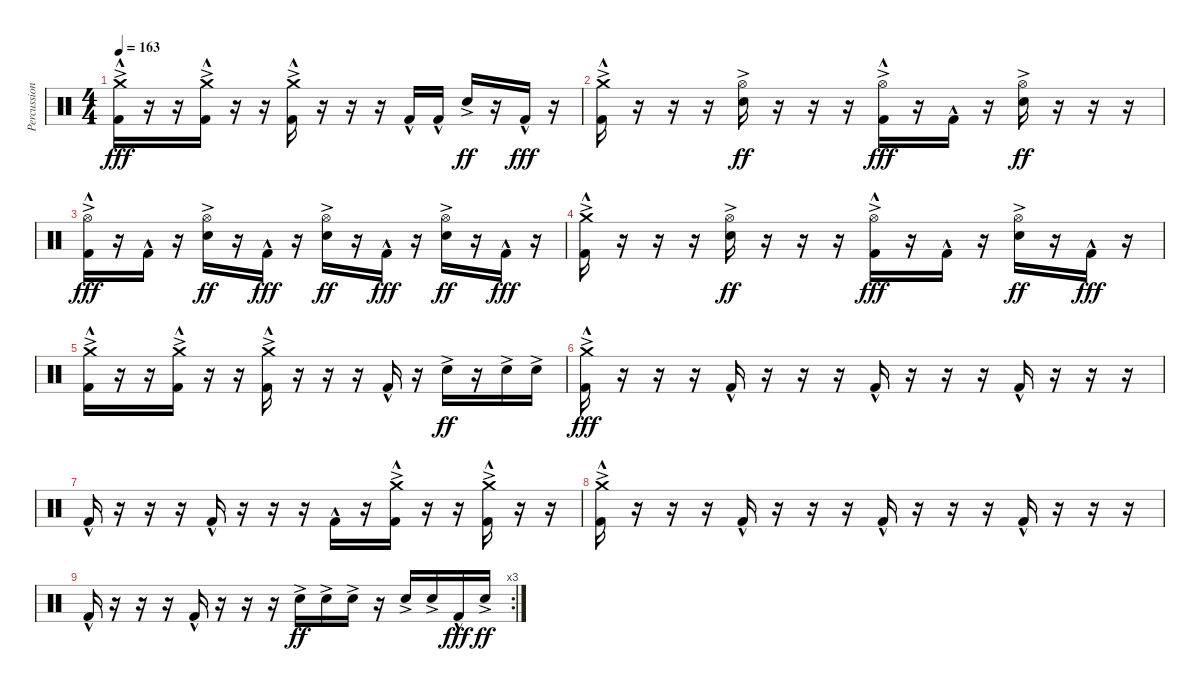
\track ("Percussion" "Percussion") {instrument percussion}
\staff {score}
\articulation defaults
\ts (4 4)
\tempo 163
\clef neutral
\ks c
("Crash medium (hit)"{ac} "Kick (hit) 2"{hac}).16{dy fff} r.16 r.16 ("Crash medium (hit)"{ac} "Kick (hit) 2"{hac}).16 r.16 r.16 ("Crash medium (hit)"{ac} "Kick (hit) 2"{hac}).16 r.16 r.16 r.16 "Kick (hit) 2"{hac}.16 "Kick (hit) 2"{hac}.16 "Snare (hit) 2"{ac}.16{dy ff} r.16 "Kick (hit) 2"{hac}.16{dy fff} r.16 |
("Crash medium (hit)"{ac} "Kick (hit) 2"{hac}).16 r.16 r.16 r.16 ("Hi-Hat (open)"{ac} "Snare (hit) 2"{ac}).16{dy ff} r.16 r.16 r.16 ("Hi-Hat (open)"{ac} "Kick (hit) 2"{hac}).16{dy fff} r.16 "Kick (hit) 2"{hac}.16 r.16 ("Hi-Hat (open)"{ac} "Snare (hit) 2"{ac}).16{dy ff} r.16 r.16 r.16 |
("Hi-Hat (open)"{ac} "Kick (hit) 2"{hac}).16{dy fff} r.16 "Kick (hit) 2"{hac}.16 r.16 ("Hi-Hat (open)"{ac} "Snare (hit) 2"{ac}).16{dy ff} r.16 "Kick (hit) 2"{hac}.16{dy fff} r.16 ("Hi-Hat (open)"{ac} "Snare (hit) 2").16{dy ff} r.16 "Kick (hit) 2"{hac}.16{dy fff} r.16 ("Hi-Hat (open)"{ac} "Snare (hit) 2"{ac}).16{dy ff} r.16 "Kick (hit) 2"{hac}.16{dy fff} r.16 |
("Crash medium (hit)"{ac} "Kick (hit) 2"{hac}).16 r.16 r.16 r.16 ("Hi-Hat (open)"{ac} "Snare (hit) 2"{ac}).16{dy ff} r.16 r.16 r.16 ("Hi-Hat (open)"{ac} "Kick (hit) 2"{hac}).16{dy fff} r.16 "Kick (hit) 2"{hac}.16 r.16 ("Hi-Hat (open)"{ac} "Snare (hit) 2"{ac}).16{dy ff} r.16 "Kick (hit) 2"{hac}.16{dy fff} r.16 |
("Crash medium (hit)"{ac} "Kick (hit) 2"{hac}).16 r.16 r.16 ("Crash medium (hit)"{ac} "Kick (hit) 2"{hac}).16 r.16 r.16 ("Crash medium (hit)"{ac} "Kick (hit) 2"{hac}).16 r.16 r.16 r.16 "Kick (hit) 2"{hac}.16 r.16 "Snare (hit) 2"{ac}.16{dy ff} r.16 "Snare (hit) 2"{ac}.16 "Snare (hit) 2"{ac}.16 |
("Crash medium (hit)"{ac} "Kick (hit) 2"{hac}).16{dy fff} r.16 r.16 r.16 "Kick (hit) 2"{hac}.16 r.16 r.16 r.16 "Kick (hit) 2"{hac}.16 r.16 r.16 r.16 "Kick (hit) 2"{hac}.16 r.16 r.16 r.16 |
"Kick (hit) 2"{hac}.16 r.16 r.16 r.16 "Kick (hit) 2"{hac}.16 r.16 r.16 r.16 "Kick (hit) 2"{hac}.16 r.16 ("Crash medium (hit)"{ac} "Kick (hit) 2"{hac}).16 r.16 r.16 ("Crash medium (hit)"{ac} "Kick (hit) 2"{hac}).16 r.16 r.16 |
("Crash medium (hit)"{ac} "Kick (hit) 2"{hac}).16 r.16 r.16 r.16 "Kick (hit) 2"{hac}.16 r.16 r.16 r.16 "Kick (hit) 2"{hac}.16 r.16 r.16 r.16 "Kick (hit) 2"{hac}.16 r.16 r.16 r.16 |
\rc 3 "Kick (hit) 2"{hac}.16
r.16 r.16 r.16 "Kick (hit) 2"{hac}.16 r.16 r.16 r.16 "Snare (hit) 2"{ac}.16{dy ff} "Snare (hit) 2"{ac}.16 "Snare (hit) 2"{ac}.16 r.16 "Snare (hit) 2"{ac}.16 "Snare (hit) 2"{ac}.16 "Kick (hit) 2"{hac}.16{dy fff} "Snare (hit) 2"{ac}.16{dy ff}
